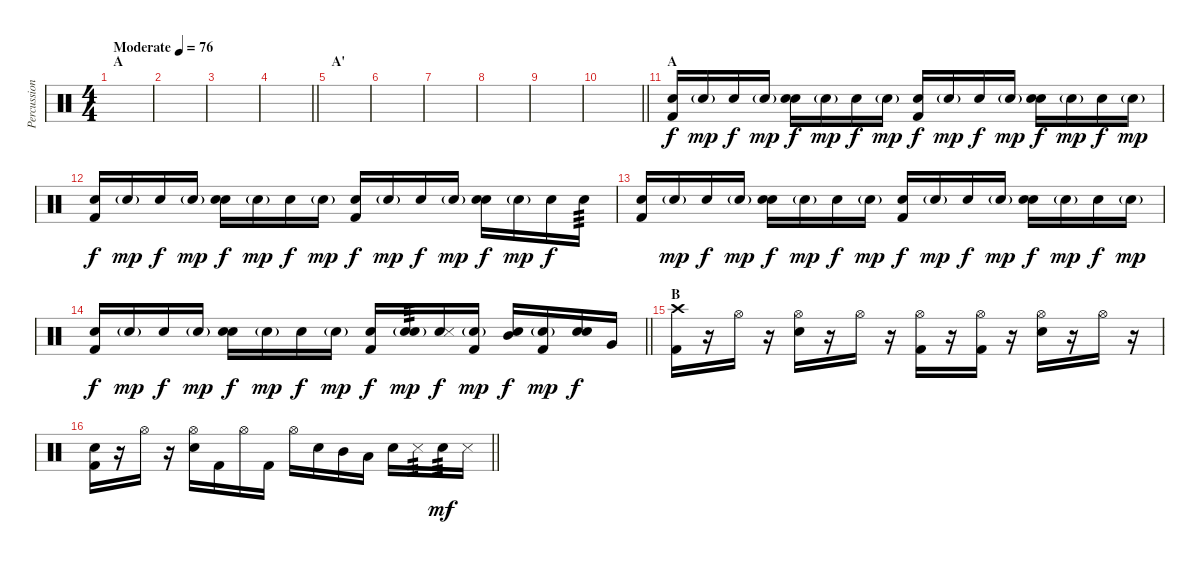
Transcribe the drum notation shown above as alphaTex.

\track ("Percussion" "Percussion") {instrument percussion}
\staff {score}
\articulation defaults
\ts (4 4)
\section ("" "A")
\tempo (76 "Moderate")
\clef neutral
\ks c
|
|
|
\barLineRight lightlight
|
\section ("" "A'")
|
|
|
|
|
\barLineRight lightlight
|
\section ("" "A")
("Snare (hit)" "Kick (hit) 2").16 "Snare (hit)"{g}.16{dy mp} "Snare (hit)".16{dy f} "Snare (hit)"{g}.16{dy mp} ("Snare (hit)" "Snare (hit) 2").16{dy f} "Snare (hit)"{g}.16{dy mp} "Snare (hit)".16{dy f} "Snare (hit)"{g}.16{dy mp} ("Snare (hit)" "Kick (hit) 2").16{dy f} "Snare (hit)"{g}.16{dy mp} "Snare (hit)".16{dy f} "Snare (hit)"{g}.16{dy mp} ("Snare (hit)" "Snare (hit) 2").16{dy f} "Snare (hit)"{g}.16{dy mp} "Snare (hit)".16{dy f} "Snare (hit)"{g}.16{dy mp} |
("Snare (hit)" "Kick (hit) 2").16{dy f} "Snare (hit)"{g}.16{dy mp} "Snare (hit)".16{dy f} "Snare (hit)"{g}.16{dy mp} ("Snare (hit)" "Snare (hit) 2").16{dy f} "Snare (hit)"{g}.16{dy mp} "Snare (hit)".16{dy f} "Snare (hit)"{g}.16{dy mp} ("Snare (hit)" "Kick (hit) 2").16{dy f} "Snare (hit)"{g}.16{dy mp} "Snare (hit)".16{dy f} "Snare (hit)"{g}.16{dy mp} ("Snare (hit)" "Snare (hit) 2").16{dy f} "Snare (hit)"{g}.16{dy mp} "Snare (hit)".16{dy f} "Snare (hit)".16{tp 3} |
("Snare (hit)" "Kick (hit) 2").16 "Snare (hit)"{g}.16{dy mp} "Snare (hit)".16{dy f} "Snare (hit)"{g}.16{dy mp} ("Snare (hit)" "Snare (hit) 2").16{dy f} "Snare (hit)"{g}.16{dy mp} "Snare (hit)".16{dy f} "Snare (hit)"{g}.16{dy mp} ("Snare (hit)" "Kick (hit) 2").16{dy f} "Snare (hit)"{g}.16{dy mp} "Snare (hit)".16{dy f} "Snare (hit)"{g}.16{dy mp} ("Snare (hit)" "Snare (hit) 2").16{dy f} "Snare (hit)"{g}.16{dy mp} "Snare (hit)".16{dy f} "Snare (hit)"{g}.16{dy mp} |
\barLineRight lightlight
("Snare (hit)" "Kick (hit) 2").16{dy f} "Snare (hit)"{g}.16{dy mp} "Snare (hit)".16{dy f} "Snare (hit)"{g}.16{dy mp} ("Snare (hit)" "Snare (hit) 2").16{dy f} "Snare (hit)"{g}.16{dy mp} "Snare (hit)".16{dy f} "Snare (hit)"{g}.16{dy mp} ("Snare (hit)" "Kick (hit) 2").16{dy f} ("Snare (hit)"{g} "Snare (hit) 2").16{tp 3 dy mp} ("Snare (hit)" "Metronome (hit)").16{dy f} ("Snare (hit)"{g} "Kick (hit) 2").16{dy mp} ("Snare (hit)" "Mid Tom (hit)").16{dy f} ("Snare (hit)"{g} "Kick (hit) 2").16{dy mp} ("Snare (hit)" "Snare (hit) 2").16{dy f} "Very Low Tom (hit)".16 |
\section ("" "B")
("Crash high (hit)" "Kick (hit) 2").16 r.16 "Hi-Hat (open)".16 r.16 ("Hi-Hat (open)" "Snare (hit) 2").16 r.16 "Hi-Hat (open)".16 r.16 ("Hi-Hat (open)" "Kick (hit) 2").16 r.16 ("Hi-Hat (open)" "Kick (hit) 2").16 r.16 ("Hi-Hat (open)" "Snare (hit) 2").16 r.16 "Hi-Hat (open)".16 r.16 |
\barLineRight lightlight
("Snare (hit)" "Kick (hit) 2").16 r.16 "Hi-Hat (open)".16 r.16 ("Hi-Hat (open)" "Snare (hit) 2").16 "Kick (hit) 2".16 "Hi-Hat (open)".16 "Kick (hit) 2".16 "Hi-Hat (open)".16 "Snare (hit) 2".16 "Mid Tom (hit)".16 "Low Tom (hit)".16 "Snare (hit) 2".16 "Metronome (hit)".16{tp 3} "Snare (hit) 2".16{tp 3 dy mf} "Metronome (hit)".16
